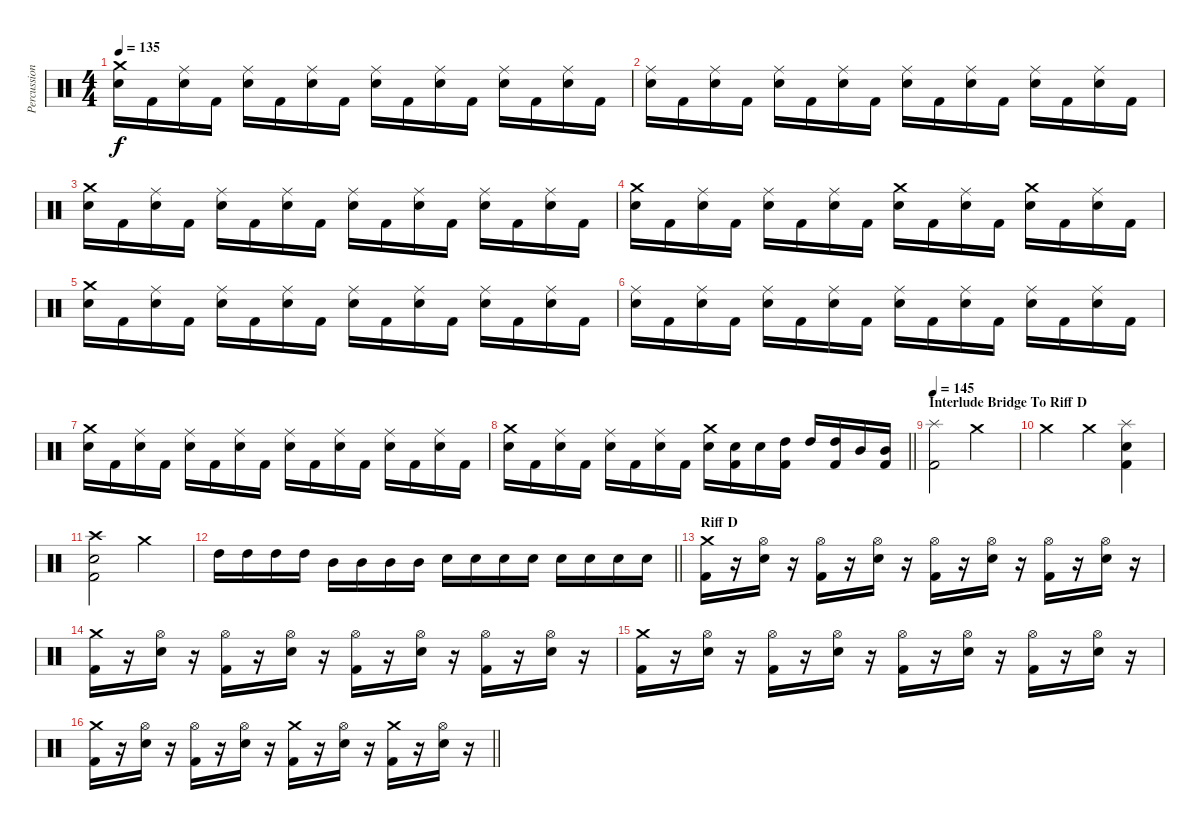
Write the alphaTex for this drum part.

\track ("Percussion" "Percussion") {instrument percussion}
\staff {score}
\articulation defaults
\ts (4 4)
\tempo 135
\clef neutral
\ks c
("Crash medium (hit)" "Snare (hit) 2").16{dy f} "Kick (hit) 2".16 ("Ride (middle)" "Snare (hit) 2").16 "Kick (hit) 2".16 ("Ride (middle)" "Snare (hit) 2").16 "Kick (hit) 2".16 ("Ride (middle)" "Snare (hit) 2").16 "Kick (hit) 2".16 ("Ride (middle)" "Snare (hit) 2").16 "Kick (hit) 2".16 ("Ride (middle)" "Snare (hit) 2").16 "Kick (hit) 2".16 ("Ride (middle)" "Snare (hit) 2").16 "Kick (hit) 2".16 ("Ride (middle)" "Snare (hit) 2").16 "Kick (hit) 2".16 |
("Ride (middle)" "Snare (hit) 2").16 "Kick (hit) 2".16 ("Ride (middle)" "Snare (hit) 2").16 "Kick (hit) 2".16 ("Ride (middle)" "Snare (hit) 2").16 "Kick (hit) 2".16 ("Ride (middle)" "Snare (hit) 2").16 "Kick (hit) 2".16 ("Ride (middle)" "Snare (hit) 2").16 "Kick (hit) 2".16 ("Ride (middle)" "Snare (hit) 2").16 "Kick (hit) 2".16 ("Ride (middle)" "Snare (hit) 2").16 "Kick (hit) 2".16 ("Ride (middle)" "Snare (hit) 2").16 "Kick (hit) 2".16 |
("Crash medium (hit)" "Snare (hit) 2").16 "Kick (hit) 2".16 ("Ride (middle)" "Snare (hit) 2").16 "Kick (hit) 2".16 ("Ride (middle)" "Snare (hit) 2").16 "Kick (hit) 2".16 ("Ride (middle)" "Snare (hit) 2").16 "Kick (hit) 2".16 ("Ride (middle)" "Snare (hit) 2").16 "Kick (hit) 2".16 ("Ride (middle)" "Snare (hit) 2").16 "Kick (hit) 2".16 ("Ride (middle)" "Snare (hit) 2").16 "Kick (hit) 2".16 ("Ride (middle)" "Snare (hit) 2").16 "Kick (hit) 2".16 |
("Crash medium (hit)" "Snare (hit) 2").16 "Kick (hit) 2".16 ("Ride (middle)" "Snare (hit) 2").16 "Kick (hit) 2".16 ("Ride (middle)" "Snare (hit) 2").16 "Kick (hit) 2".16 ("Ride (middle)" "Snare (hit) 2").16 "Kick (hit) 2".16 ("Crash medium (hit)" "Snare (hit) 2").16 "Kick (hit) 2".16 ("Ride (middle)" "Snare (hit) 2").16 "Kick (hit) 2".16 ("Crash medium (hit)" "Snare (hit) 2").16 "Kick (hit) 2".16 ("Ride (middle)" "Snare (hit) 2").16 "Kick (hit) 2".16 |
("Crash medium (hit)" "Snare (hit) 2").16 "Kick (hit) 2".16 ("Ride (middle)" "Snare (hit) 2").16 "Kick (hit) 2".16 ("Ride (middle)" "Snare (hit) 2").16 "Kick (hit) 2".16 ("Ride (middle)" "Snare (hit) 2").16 "Kick (hit) 2".16 ("Ride (middle)" "Snare (hit) 2").16 "Kick (hit) 2".16 ("Ride (middle)" "Snare (hit) 2").16 "Kick (hit) 2".16 ("Ride (middle)" "Snare (hit) 2").16 "Kick (hit) 2".16 ("Ride (middle)" "Snare (hit) 2").16 "Kick (hit) 2".16 |
("Ride (middle)" "Snare (hit) 2").16 "Kick (hit) 2".16 ("Ride (middle)" "Snare (hit) 2").16 "Kick (hit) 2".16 ("Ride (middle)" "Snare (hit) 2").16 "Kick (hit) 2".16 ("Ride (middle)" "Snare (hit) 2").16 "Kick (hit) 2".16 ("Ride (middle)" "Snare (hit) 2").16 "Kick (hit) 2".16 ("Ride (middle)" "Snare (hit) 2").16 "Kick (hit) 2".16 ("Ride (middle)" "Snare (hit) 2").16 "Kick (hit) 2".16 ("Ride (middle)" "Snare (hit) 2").16 "Kick (hit) 2".16 |
("Crash medium (hit)" "Snare (hit) 2").16 "Kick (hit) 2".16 ("Ride (middle)" "Snare (hit) 2").16 "Kick (hit) 2".16 ("Ride (middle)" "Snare (hit) 2").16 "Kick (hit) 2".16 ("Ride (middle)" "Snare (hit) 2").16 "Kick (hit) 2".16 ("Ride (middle)" "Snare (hit) 2").16 "Kick (hit) 2".16 ("Ride (middle)" "Snare (hit) 2").16 "Kick (hit) 2".16 ("Ride (middle)" "Snare (hit) 2").16 "Kick (hit) 2".16 ("Ride (middle)" "Snare (hit) 2").16 "Kick (hit) 2".16 |
\barLineRight lightlight
("Crash medium (hit)" "Snare (hit) 2").16 "Kick (hit) 2".16 ("Ride (middle)" "Snare (hit) 2").16 "Kick (hit) 2".16 ("Ride (middle)" "Snare (hit) 2").16 "Kick (hit) 2".16 ("Ride (middle)" "Snare (hit) 2").16 "Kick (hit) 2".16 ("Crash medium (hit)" "Snare (hit) 2").16 ("Snare (hit) 2" "Kick (hit) 2").16 "Snare (hit) 2".16 ("High Tom (hit)" "Kick (hit) 2").16 "High Tom (hit)".16 ("High Tom (hit)" "Kick (hit) 2").16 "Mid Tom (hit)".16 ("Mid Tom (hit)" "Kick (hit) 2").16 |
\section ("" "Interlude Bridge To Riff D")
\tempo 145
("Splash (hit)" "Kick (hit) 2").2 "Crash medium (hit)".2 |
"Crash medium (hit)".2 "Crash medium (hit)".4 ("Splash (hit)" "Snare (hit) 2" "Kick (hit) 2").4 |
("Crash high (hit)" "Snare (hit) 2" "Kick (hit) 2").2 "Crash medium (hit)".2 |
\barLineRight lightlight "High Tom (hit)".16 "High Tom (hit)".16 "High Tom (hit)".16 "High Tom (hit)".16 "Mid Tom (hit)".16 "Mid Tom (hit)".16 "Mid Tom (hit)".16 "Mid Tom (hit)".16 "Electric Snare (hit)".16 "Electric Snare (hit)".16 "Electric Snare (hit)".16 "Electric Snare (hit)".16 "Snare (hit) 2".16 "Snare (hit) 2".16 "Snare (hit) 2".16 "Snare (hit) 2".16
|
\section ("" "Riff D")
("Crash medium (hit)" "Kick (hit) 2").16 r.16 ("Hi-Hat (open)" "Snare (hit) 2").16 r.16 ("Hi-Hat (open)" "Kick (hit) 2").16 r.16 ("Hi-Hat (open)" "Snare (hit) 2").16 r.16 ("Hi-Hat (open)" "Kick (hit) 2").16 r.16 ("Hi-Hat (open)" "Snare (hit) 2").16 r.16 ("Hi-Hat (open)" "Kick (hit) 2").16 r.16 ("Hi-Hat (open)" "Snare (hit) 2").16 r.16 |
("Crash medium (hit)" "Kick (hit) 2").16 r.16 ("Hi-Hat (open)" "Snare (hit) 2").16 r.16 ("Hi-Hat (open)" "Kick (hit) 2").16 r.16 ("Hi-Hat (open)" "Snare (hit) 2").16 r.16 ("Hi-Hat (open)" "Kick (hit) 2").16 r.16 ("Hi-Hat (open)" "Snare (hit) 2").16 r.16 ("Hi-Hat (open)" "Kick (hit) 2").16 r.16 ("Hi-Hat (open)" "Snare (hit) 2").16 r.16 |
("Crash medium (hit)" "Kick (hit) 2").16 r.16 ("Hi-Hat (open)" "Snare (hit) 2").16 r.16 ("Hi-Hat (open)" "Kick (hit) 2").16 r.16 ("Hi-Hat (open)" "Snare (hit) 2").16 r.16 ("Hi-Hat (open)" "Kick (hit) 2").16 r.16 ("Hi-Hat (open)" "Snare (hit) 2").16 r.16 ("Hi-Hat (open)" "Kick (hit) 2").16 r.16 ("Hi-Hat (open)" "Snare (hit) 2").16 r.16 |
\barLineRight lightlight
("Crash medium (hit)" "Kick (hit) 2").16 r.16 ("Hi-Hat (open)" "Snare (hit) 2").16 r.16 ("Hi-Hat (open)" "Kick (hit) 2").16 r.16 ("Hi-Hat (open)" "Snare (hit) 2").16 r.16 ("Crash medium (hit)" "Kick (hit) 2").16 r.16 ("Hi-Hat (open)" "Snare (hit) 2").16 r.16 ("Crash medium (hit)" "Kick (hit) 2").16 r.16 ("Hi-Hat (open)" "Snare (hit) 2").16 r.16
